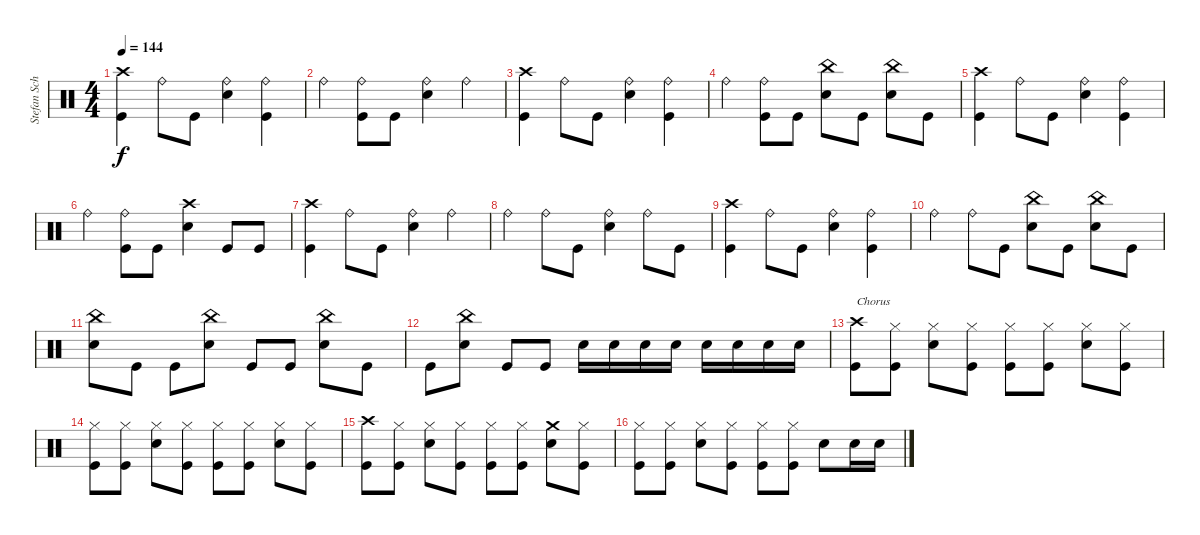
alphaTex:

\track ("Stefan Schwarzmann" "Stefan Sch") {instrument percussion}
\staff {score}
\articulation defaults
\ts (4 4)
\tempo 144
\clef neutral
\ks c
("Kick (hit)" "Crash high (hit)").4{dy f} "Ride (bell)".8 "Kick (hit)".8 ("Snare (hit) 2" "Ride (bell)").4 ("Kick (hit)" "Ride (bell)").4 |
"Ride (bell)".4 ("Kick (hit)" "Ride (bell)").8 "Kick (hit)".8 ("Snare (hit) 2" "Ride (bell)").4 "Ride (bell)".4 |
("Crash high (hit)" "Kick (hit)").4 "Ride (bell)".8 "Kick (hit)".8 ("Snare (hit) 2" "Ride (bell)").4 ("Kick (hit)" "Ride (bell)").4 |
"Ride (bell)".4 ("Kick (hit)" "Ride (bell)").8 "Kick (hit)".8 ("Snare (hit) 2" "China (hit)").8 "Kick (hit)".8 ("Snare (hit) 2" "China (hit)").8 "Kick (hit)".8 |
("Kick (hit)" "Crash high (hit)").4 "Ride (bell)".8 "Kick (hit)".8 ("Snare (hit) 2" "Ride (bell)").4 ("Kick (hit)" "Ride (bell)").4 |
"Ride (bell)".4 ("Kick (hit)" "Ride (bell)").8 "Kick (hit)".8 ("Snare (hit) 2" "Crash high (hit)").4 "Kick (hit)".8 "Kick (hit)".8 |
("Kick (hit)" "Crash high (hit)").4 "Ride (bell)".8 "Kick (hit)".8 ("Snare (hit) 2" "Ride (bell)").4 "Ride (bell)".4 |
"Ride (bell)".4 "Ride (bell)".8 "Kick (hit)".8 ("Snare (hit) 2" "Ride (bell)").4 "Ride (bell)".8 "Kick (hit)".8 |
("Crash high (hit)" "Kick (hit)").4 "Ride (bell)".8 "Kick (hit)".8 ("Snare (hit) 2" "Ride (bell)").4 ("Kick (hit)" "Ride (bell)").4 |
"Ride (bell)".4 "Ride (bell)".8 "Kick (hit)".8 ("Snare (hit) 2" "China (hit)").8 "Kick (hit)".8 ("Snare (hit) 2" "China (hit)").8 "Kick (hit)".8 |
("Snare (hit) 2" "China (hit)").8 "Kick (hit)".8 "Kick (hit)".8 ("Snare (hit) 2" "China (hit)").8 "Kick (hit)".8 "Kick (hit)".8 ("Snare (hit) 2" "China (hit)").8 "Kick (hit)".8 |
"Kick (hit)".8 ("Snare (hit) 2" "China (hit)").8 "Kick (hit)".8 "Kick (hit)".8 "Snare (hit) 2".16 "Snare (hit) 2".16 "Snare (hit) 2".16 "Snare (hit) 2".16 "Snare (hit) 2".16 "Snare (hit) 2".16 "Snare (hit) 2".16 "Snare (hit) 2".16 |
("Kick (hit)" "Crash high (hit)").8{txt "Chorus"} ("Kick (hit)" "Hi-Hat (closed)").8 ("Snare (hit) 2" "Hi-Hat (closed)").8 ("Kick (hit)" "Hi-Hat (closed)").8 ("Kick (hit)" "Hi-Hat (closed)").8 ("Kick (hit)" "Hi-Hat (closed)").8 ("Snare (hit) 2" "Hi-Hat (closed)").8 ("Kick (hit)" "Hi-Hat (closed)").8 |
("Kick (hit)" "Hi-Hat (closed)").8 ("Kick (hit)" "Hi-Hat (closed)").8 ("Snare (hit) 2" "Hi-Hat (closed)").8 ("Kick (hit)" "Hi-Hat (closed)").8 ("Kick (hit)" "Hi-Hat (closed)").8 ("Kick (hit)" "Hi-Hat (closed)").8 ("Snare (hit) 2" "Hi-Hat (closed)").8 ("Kick (hit)" "Hi-Hat (closed)").8 |
("Kick (hit)" "Crash high (hit)").8 ("Kick (hit)" "Hi-Hat (closed)").8 ("Snare (hit) 2" "Hi-Hat (closed)").8 ("Kick (hit)" "Hi-Hat (closed)").8 ("Kick (hit)" "Hi-Hat (closed)").8 ("Kick (hit)" "Hi-Hat (closed)").8 ("Snare (hit) 2" "Crash medium (hit)").8 ("Kick (hit)" "Hi-Hat (closed)").8 |
("Kick (hit)" "Hi-Hat (closed)").8 ("Kick (hit)" "Hi-Hat (closed)").8 ("Snare (hit) 2" "Hi-Hat (closed)").8 ("Kick (hit)" "Hi-Hat (closed)").8 ("Kick (hit)" "Hi-Hat (closed)").8 ("Kick (hit)" "Hi-Hat (closed)").8 "Snare (hit) 2".8 "Snare (hit) 2".16 "Snare (hit) 2".16
